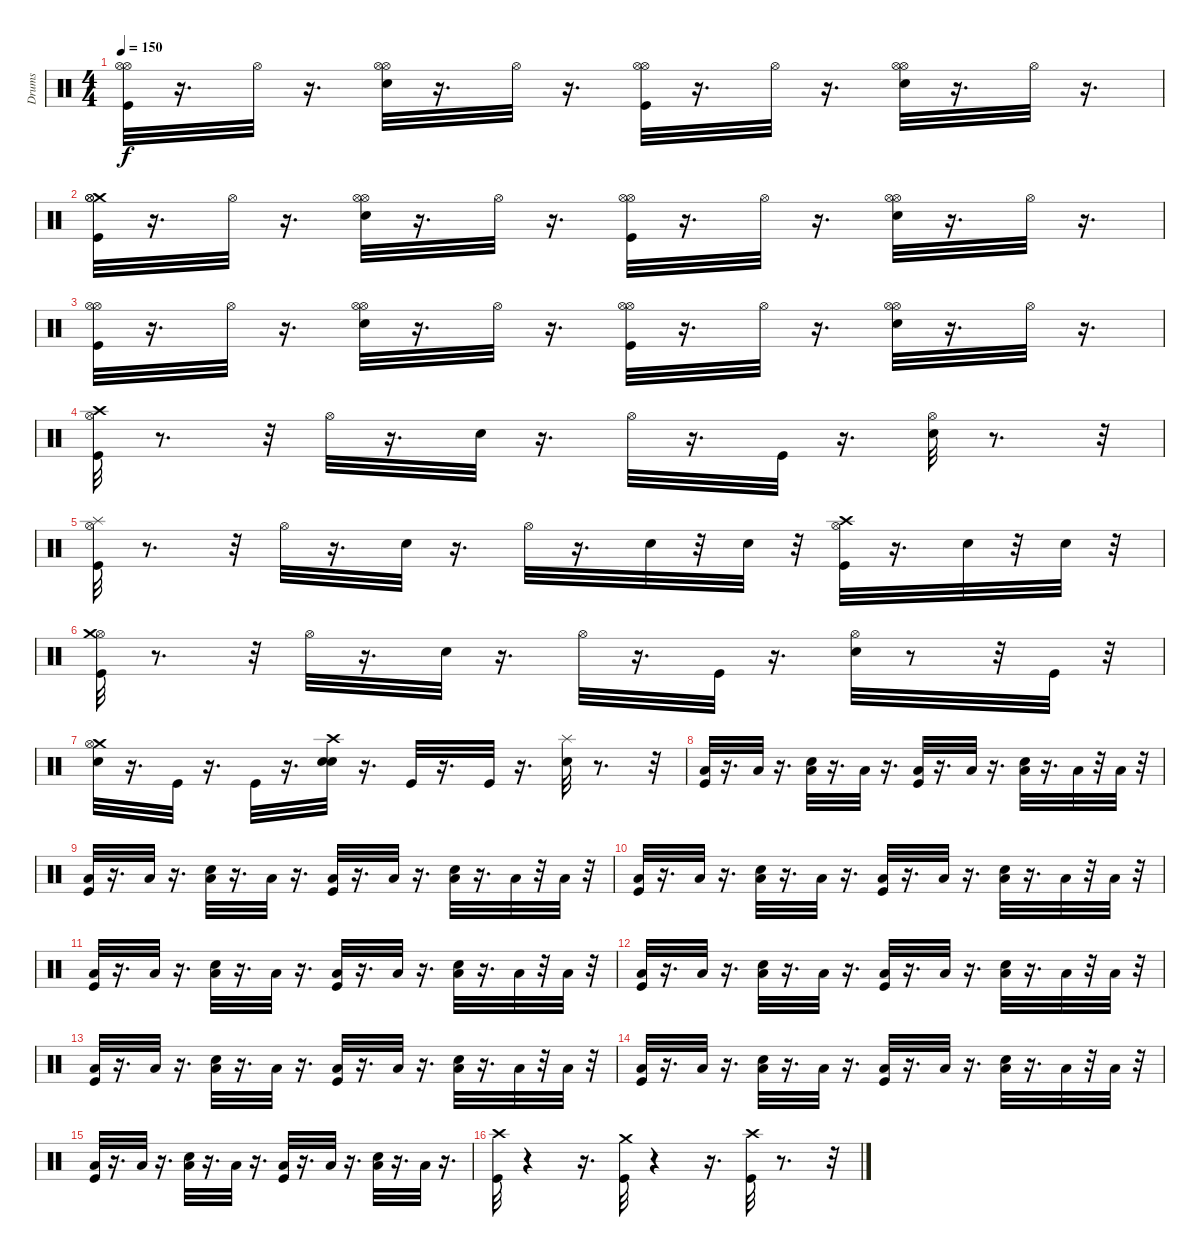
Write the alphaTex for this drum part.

\track ("Drums" "Drums") {instrument percussion}
\staff {score}
\articulation defaults
\ts (4 4)
\tempo 150
\clef neutral
\ks c
("Kick (hit)" "Hi-Hat (open)" "Hi-Hat (open)").32{dy f} r.16{d} "Hi-Hat (open)".32 r.16{d} ("Snare (hit) 2" "Hi-Hat (open)" "Hi-Hat (open)").32 r.16{d} "Hi-Hat (open)".32 r.16{d} ("Hi-Hat (open)" "Kick (hit)" "Hi-Hat (open)").32 r.16{d} "Hi-Hat (open)".32 r.16{d} ("Hi-Hat (open)" "Snare (hit) 2" "Hi-Hat (open)").32 r.16{d} "Hi-Hat (open)".32 r.16{d} |
("Crash medium (hit)" "Kick (hit)" "Hi-Hat (open)" "Hi-Hat (open)").32 r.16{d} "Hi-Hat (open)".32 r.16{d} ("Hi-Hat (open)" "Hi-Hat (open)" "Snare (hit) 2").32 r.16{d} "Hi-Hat (open)".32 r.16{d} ("Kick (hit)" "Hi-Hat (open)" "Hi-Hat (open)").32 r.16{d} "Hi-Hat (open)".32 r.16{d} ("Snare (hit) 2" "Hi-Hat (open)" "Hi-Hat (open)").32 r.16{d} "Hi-Hat (open)".32 r.16{d} |
("Kick (hit)" "Hi-Hat (open)" "Hi-Hat (open)").32 r.16{d} "Hi-Hat (open)".32 r.16{d} ("Hi-Hat (open)" "Snare (hit) 2" "Hi-Hat (open)").32 r.16{d} "Hi-Hat (open)".32 r.16{d} ("Kick (hit)" "Hi-Hat (open)" "Hi-Hat (open)").32 r.16{d} "Hi-Hat (open)".32 r.16{d} ("Snare (hit) 2" "Hi-Hat (open)" "Hi-Hat (open)").32 r.16{d} "Hi-Hat (open)".32 r.16{d} |
("Hi-Hat (open)" "Kick (hit)" "Crash high (hit)").32 r.8{d} r.32 "Hi-Hat (open)".32 r.16{d} "Snare (hit) 2".32 r.16{d} "Hi-Hat (open)".32 r.16{d} "Kick (hit)".32 r.16{d} ("Hi-Hat (open)" "Snare (hit) 2").32 r.8{d} r.32 |
("Hi-Hat (open)" "Splash (hit)" "Kick (hit)").32 r.8{d} r.32 "Hi-Hat (open)".32 r.16{d} "Snare (hit) 2".32 r.16{d} "Hi-Hat (open)".32 r.16{d} "Snare (hit) 2".32 r.32 "Snare (hit) 2".32 r.32 ("Hi-Hat (open)" "Crash high (hit)" "Kick (hit)").32 r.16{d} "Snare (hit) 2".32 r.32 "Snare (hit) 2".32 r.32 |
("Hi-Hat (open)" "Kick (hit)" "Crash medium (hit)").32 r.8{d} r.32 "Hi-Hat (open)".32 r.16{d} "Snare (hit) 2".32 r.16{d} "Hi-Hat (open)".32 r.16{d} "Kick (hit)".32 r.16{d} ("Snare (hit) 2" "Hi-Hat (open)").32 r.8 r.32 "Kick (hit)".32 r.32 |
("Crash medium (hit)" "Snare (hit) 2" "Hi-Hat (open)").32 r.16{d} "Kick (hit)".32 r.16{d} "Kick (hit)".32 r.16{d} ("Crash high (hit)" "Snare (hit) 2" "Snare (hit) 2").32 r.16{d} "Kick (hit)".32 r.16{d} "Kick (hit)".32 r.16{d} ("Splash (hit)" "Snare (hit) 2").32 r.8{d} r.32 |
("Kick (hit)" "Low Floor Tom (hit)").32 r.16{d} "Low Floor Tom (hit)".32 r.16{d} ("Low Floor Tom (hit)" "Snare (hit) 2").32 r.16{d} "Low Floor Tom (hit)".32 r.16{d} ("Kick (hit)" "Low Floor Tom (hit)").32 r.16{d} "Low Floor Tom (hit)".32 r.16{d} ("Low Floor Tom (hit)" "Snare (hit) 2").32 r.16{d} "Low Floor Tom (hit)".32 r.32 "Low Floor Tom (hit)".32 r.32 |
("Kick (hit)" "Low Floor Tom (hit)").32 r.16{d} "Low Floor Tom (hit)".32 r.16{d} ("Low Floor Tom (hit)" "Snare (hit) 2").32 r.16{d} "Low Floor Tom (hit)".32 r.16{d} ("Low Floor Tom (hit)" "Kick (hit)").32 r.16{d} "Low Floor Tom (hit)".32 r.16{d} ("Snare (hit) 2" "Low Floor Tom (hit)").32 r.16{d} "Low Floor Tom (hit)".32 r.32 "Low Floor Tom (hit)".32 r.32 |
("Kick (hit)" "Low Floor Tom (hit)").32 r.16{d} "Low Floor Tom (hit)".32 r.16{d} ("Low Floor Tom (hit)" "Snare (hit) 2").32 r.16{d} "Low Floor Tom (hit)".32 r.16{d} ("Kick (hit)" "Low Floor Tom (hit)").32 r.16{d} "Low Floor Tom (hit)".32 r.16{d} ("Low Floor Tom (hit)" "Snare (hit) 2").32 r.16{d} "Low Floor Tom (hit)".32 r.32 "Low Floor Tom (hit)".32 r.32 |
("Kick (hit)" "Low Floor Tom (hit)").32 r.16{d} "Low Floor Tom (hit)".32 r.16{d} ("Low Floor Tom (hit)" "Snare (hit) 2").32 r.16{d} "Low Floor Tom (hit)".32 r.16{d} ("Low Floor Tom (hit)" "Kick (hit)").32 r.16{d} "Low Floor Tom (hit)".32 r.16{d} ("Snare (hit) 2" "Low Floor Tom (hit)").32 r.16{d} "Low Floor Tom (hit)".32 r.32 "Low Floor Tom (hit)".32 r.32 |
("Kick (hit)" "Low Floor Tom (hit)").32 r.16{d} "Low Floor Tom (hit)".32 r.16{d} ("Low Floor Tom (hit)" "Snare (hit) 2").32 r.16{d} "Low Floor Tom (hit)".32 r.16{d} ("Kick (hit)" "Low Floor Tom (hit)").32 r.16{d} "Low Floor Tom (hit)".32 r.16{d} ("Low Floor Tom (hit)" "Snare (hit) 2").32 r.16{d} "Low Floor Tom (hit)".32 r.32 "Low Floor Tom (hit)".32 r.32 |
("Kick (hit)" "Low Floor Tom (hit)").32 r.16{d} "Low Floor Tom (hit)".32 r.16{d} ("Low Floor Tom (hit)" "Snare (hit) 2").32 r.16{d} "Low Floor Tom (hit)".32 r.16{d} ("Low Floor Tom (hit)" "Kick (hit)").32 r.16{d} "Low Floor Tom (hit)".32 r.16{d} ("Snare (hit) 2" "Low Floor Tom (hit)").32 r.16{d} "Low Floor Tom (hit)".32 r.32 "Low Floor Tom (hit)".32 r.32 |
("Kick (hit)" "Low Floor Tom (hit)").32 r.16{d} "Low Floor Tom (hit)".32 r.16{d} ("Low Floor Tom (hit)" "Snare (hit) 2").32 r.16{d} "Low Floor Tom (hit)".32 r.16{d} ("Kick (hit)" "Low Floor Tom (hit)").32 r.16{d} "Low Floor Tom (hit)".32 r.16{d} ("Low Floor Tom (hit)" "Snare (hit) 2").32 r.16{d} "Low Floor Tom (hit)".32 r.32 "Low Floor Tom (hit)".32 r.32 |
("Kick (hit)" "Low Floor Tom (hit)").32 r.16{d} "Low Floor Tom (hit)".32 r.16{d} ("Low Floor Tom (hit)" "Snare (hit) 2").32 r.16{d} "Low Floor Tom (hit)".32 r.16{d} ("Low Floor Tom (hit)" "Kick (hit)").32 r.16{d} "Low Floor Tom (hit)".32 r.16{d} ("Snare (hit) 2" "Low Floor Tom (hit)").32 r.16{d} "Low Floor Tom (hit)".32 r.16{d} |
("Crash high (hit)" "Kick (hit)").32 r.4 r.16{d} ("Kick (hit)" "Crash medium (hit)").32 r.4 r.16{d} ("Crash high (hit)" "Kick (hit)").32 r.8{d} r.32
